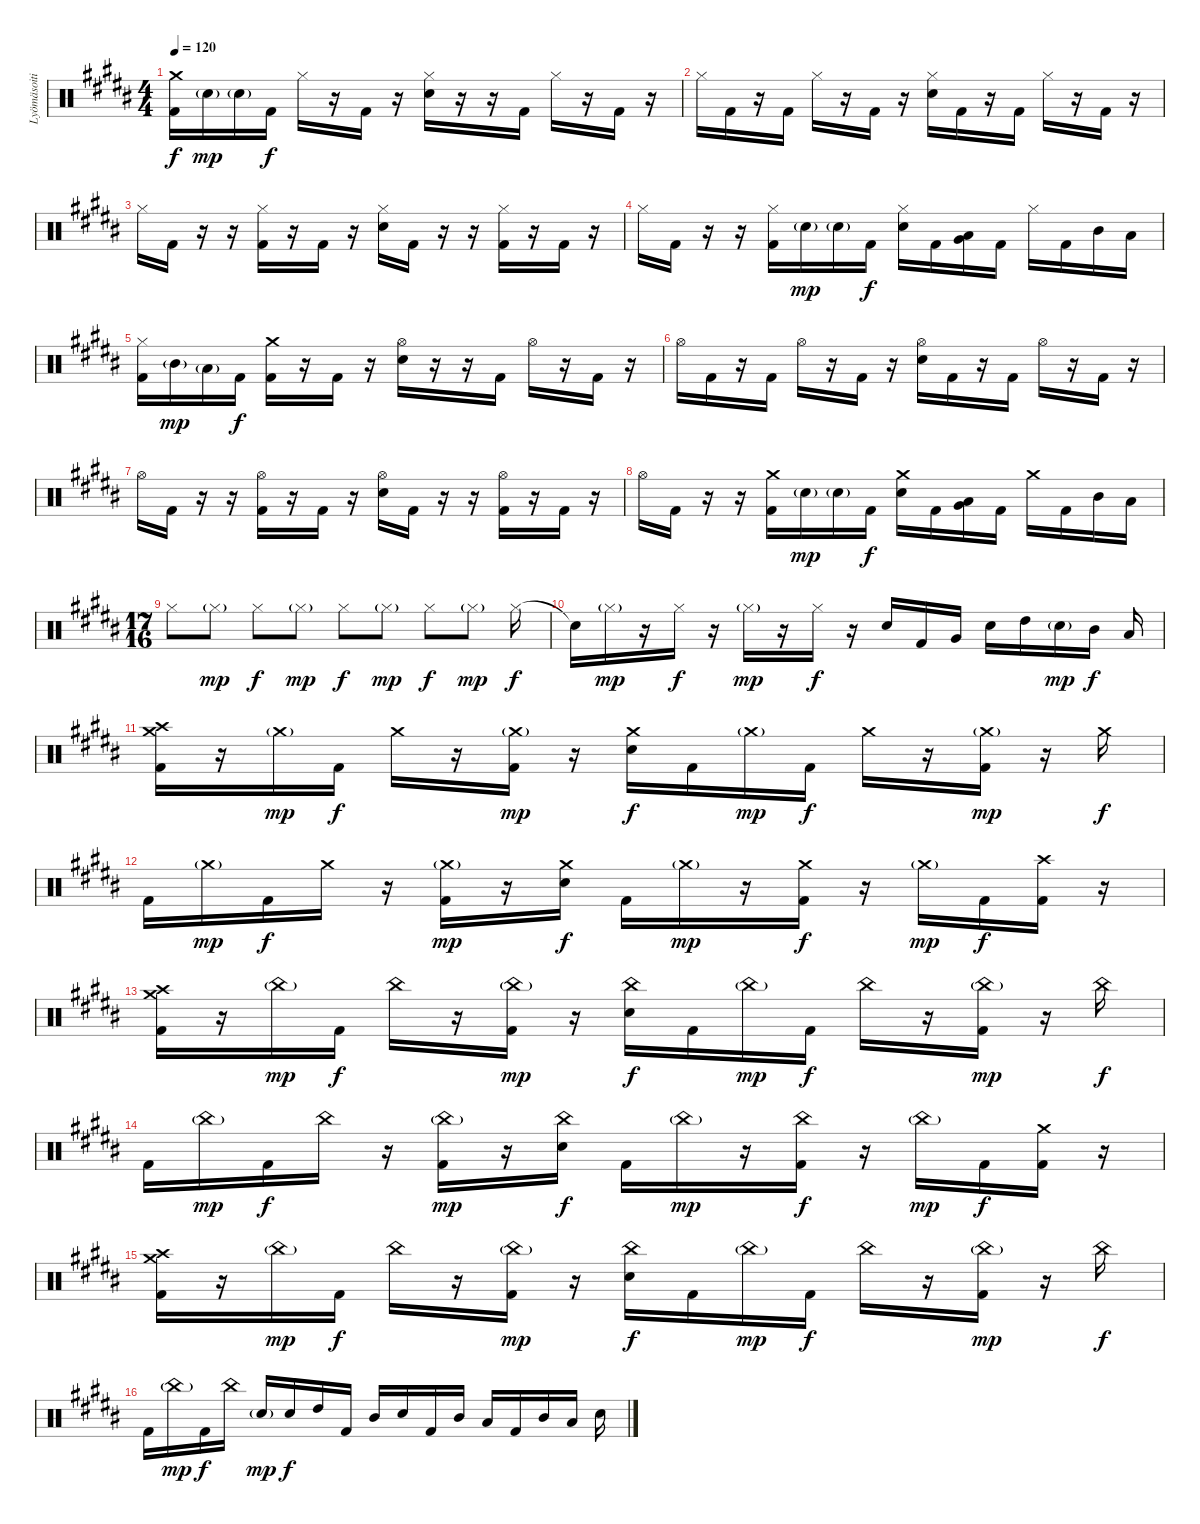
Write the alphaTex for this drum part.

\track ("Lyömäsoitin" "Lyömäsoiti") {instrument percussion}
\staff {score}
\articulation defaults
\ts (4 4)
\tempo 120
\clef neutral
\ks g#minor
("Crash medium (hit)" "Kick (hit) 2").16{dy f} "Electric Snare (hit)"{g}.16{dy mp} "Electric Snare (hit)"{g}.16 "Kick (hit) 2".16{dy f} "Hi-Hat (closed)".16 r.16 "Kick (hit) 2".16 r.16 ("Hi-Hat (closed)" "Electric Snare (hit)").16 r.16 r.16 "Kick (hit) 2".16 "Hi-Hat (closed)".16 r.16 "Kick (hit) 2".16 r.16 |
"Hi-Hat (closed)".16 "Kick (hit) 2".16 r.16 "Kick (hit) 2".16 "Hi-Hat (closed)".16 r.16 "Kick (hit) 2".16 r.16 ("Hi-Hat (closed)" "Electric Snare (hit)").16 "Kick (hit) 2".16 r.16 "Kick (hit) 2".16 "Hi-Hat (closed)".16 r.16 "Kick (hit) 2".16 r.16 |
"Hi-Hat (closed)".16 "Kick (hit) 2".16 r.16 r.16 ("Hi-Hat (closed)" "Kick (hit) 2").16 r.16 "Kick (hit) 2".16 r.16 ("Hi-Hat (closed)" "Electric Snare (hit)").16 "Kick (hit) 2".16 r.16 r.16 ("Hi-Hat (closed)" "Kick (hit) 2").16 r.16 "Kick (hit) 2".16 r.16 |
"Hi-Hat (closed)".16 "Kick (hit) 2".16 r.16 r.16 ("Hi-Hat (closed)" "Kick (hit) 2").16 "Electric Snare (hit)"{g}.16{dy mp} "Electric Snare (hit)"{g}.16 "Kick (hit) 2".16{dy f} ("Hi-Hat (closed)" "Electric Snare (hit)").16 "Kick (hit) 2".16 ("Very Low Tom (hit)" "Low Floor Tom (hit)").16 "Kick (hit) 2".16 "Hi-Hat (closed)".16 "Kick (hit) 2".16 "Mid Tom (hit)".16 "Low Tom (hit)".16 |
("Hi-Hat (closed)" "Kick (hit) 2").16 "Mid Tom (hit)"{g}.16{dy mp} "Low Tom (hit)"{g}.16 "Kick (hit) 2".16{dy f} ("Crash medium (hit)" "Kick (hit) 2").16 r.16 "Kick (hit) 2".16 r.16 ("Hi-Hat (open)" "Electric Snare (hit)").16 r.16 r.16 "Kick (hit) 2".16 "Hi-Hat (open)".16 r.16 "Kick (hit) 2".16 r.16 |
"Hi-Hat (open)".16 "Kick (hit) 2".16 r.16 "Kick (hit) 2".16 "Hi-Hat (open)".16 r.16 "Kick (hit) 2".16 r.16 ("Hi-Hat (open)" "Electric Snare (hit)").16 "Kick (hit) 2".16 r.16 "Kick (hit) 2".16 "Hi-Hat (open)".16 r.16 "Kick (hit) 2".16 r.16 |
"Hi-Hat (open)".16 "Kick (hit) 2".16 r.16 r.16 ("Hi-Hat (open)" "Kick (hit) 2").16 r.16 "Kick (hit) 2".16 r.16 ("Hi-Hat (open)" "Electric Snare (hit)").16 "Kick (hit) 2".16 r.16 r.16 ("Hi-Hat (open)" "Kick (hit) 2").16 r.16 "Kick (hit) 2".16 r.16 |
"Hi-Hat (open)".16 "Kick (hit) 2".16 r.16 r.16 ("Crash medium (hit)" "Kick (hit) 2").16 "Electric Snare (hit)"{g}.16{dy mp} "Electric Snare (hit)"{g}.16 "Kick (hit) 2".16{dy f} ("Crash medium (hit)" "Electric Snare (hit)").16 "Kick (hit) 2".16 ("Very Low Tom (hit)" "Low Floor Tom (hit)").16 "Kick (hit) 2".16 "Crash medium (hit)".16 "Kick (hit) 2".16 "Mid Tom (hit)".16 "Low Tom (hit)".16 |
\ts (17 16)
"Hi-Hat (closed)".8 "Hi-Hat (closed)"{g}.8{dy mp} "Hi-Hat (closed)".8{dy f} "Hi-Hat (closed)"{g}.8{dy mp} "Hi-Hat (closed)".8{dy f} "Hi-Hat (closed)"{g}.8{dy mp} "Hi-Hat (closed)".8{dy f} "Hi-Hat (closed)"{g}.8{dy mp} "Hi-Hat (closed)".16{dy f} |
"Snare (hit)"{t}.16 "Hi-Hat (closed)"{g}.16{dy mp} r.16 "Hi-Hat (closed)".16{dy f} r.16 "Hi-Hat (closed)"{g}.16{dy mp} r.16 "Hi-Hat (closed)".16{dy f} r.16 "Electric Snare (hit)".16 "Kick (hit) 2".16 "Very Low Tom (hit)".16 "Electric Snare (hit)".16 "High Tom (hit)".16 "Electric Snare (hit)"{g}.16{dy mp} "Mid Tom (hit)".16{dy f} "Low Tom (hit)".16 |
("Crash medium (hit)" "Crash high (hit)" "Kick (hit) 2").16 r.16 "Crash medium (hit)"{g}.16{dy mp} "Kick (hit) 2".16{dy f} "Crash medium (hit)".16 r.16 ("Crash medium (hit)"{g} "Kick (hit) 2").16{dy mp} r.16 ("Crash medium (hit)" "Electric Snare (hit)").16{dy f} "Kick (hit) 2".16 "Crash medium (hit)"{g}.16{dy mp} "Kick (hit) 2".16{dy f} "Crash medium (hit)".16 r.16 ("Crash medium (hit)"{g} "Kick (hit) 2").16{dy mp} r.16 "Crash medium (hit)".16{dy f} |
"Kick (hit) 2".16 "Crash medium (hit)"{g}.16{dy mp} "Kick (hit) 2".16{dy f} "Crash medium (hit)".16 r.16 ("Crash medium (hit)"{g} "Kick (hit) 2").16{dy mp} r.16 ("Crash medium (hit)" "Electric Snare (hit)").16{dy f} "Kick (hit) 2".16 "Crash medium (hit)"{g}.16{dy mp} r.16 ("Crash medium (hit)" "Kick (hit) 2").16{dy f} r.16 "Crash medium (hit)"{g}.16{dy mp} "Kick (hit) 2".16{dy f} ("Crash high (hit)" "Kick (hit) 2").16 r.16 |
("Crash medium (hit)" "Crash high (hit)" "Kick (hit) 2").16 r.16 "China (hit)"{g}.16{dy mp} "Kick (hit) 2".16{dy f} "China (hit)".16 r.16 ("China (hit)"{g} "Kick (hit) 2").16{dy mp} r.16 ("China (hit)" "Electric Snare (hit)").16{dy f} "Kick (hit) 2".16 "China (hit)"{g}.16{dy mp} "Kick (hit) 2".16{dy f} "China (hit)".16 r.16 ("China (hit)"{g} "Kick (hit) 2").16{dy mp} r.16 "China (hit)".16{dy f} |
"Kick (hit) 2".16 "China (hit)"{g}.16{dy mp} "Kick (hit) 2".16{dy f} "China (hit)".16 r.16 ("China (hit)"{g} "Kick (hit) 2").16{dy mp} r.16 ("China (hit)" "Electric Snare (hit)").16{dy f} "Kick (hit) 2".16 "China (hit)"{g}.16{dy mp} r.16 ("China (hit)" "Kick (hit) 2").16{dy f} r.16 "China (hit)"{g}.16{dy mp} "Kick (hit) 2".16{dy f} ("Crash medium (hit)" "Kick (hit) 2").16 r.16 |
("Crash medium (hit)" "Crash high (hit)" "Kick (hit) 2").16 r.16 "China (hit)"{g}.16{dy mp} "Kick (hit) 2".16{dy f} "China (hit)".16 r.16 ("China (hit)"{g} "Kick (hit) 2").16{dy mp} r.16 ("China (hit)" "Electric Snare (hit)").16{dy f} "Kick (hit) 2".16 "China (hit)"{g}.16{dy mp} "Kick (hit) 2".16{dy f} "China (hit)".16 r.16 ("China (hit)"{g} "Kick (hit) 2").16{dy mp} r.16 "China (hit)".16{dy f} |
"Kick (hit) 2".16 "China (hit)"{g}.16{dy mp} "Kick (hit) 2".16{dy f} "China (hit)".16 "Electric Snare (hit)"{g}.16{dy mp} "Electric Snare (hit)".16{dy f} "High Tom (hit)".16 "Kick (hit) 2".16 "Mid Tom (hit)".16 "Electric Snare (hit)".16 "Kick (hit) 2".16 "Mid Tom (hit)".16 "Low Tom (hit)".16 "Kick (hit) 2".16 "Mid Tom (hit)".16 "Low Tom (hit)".16 "Electric Snare (hit)".16
